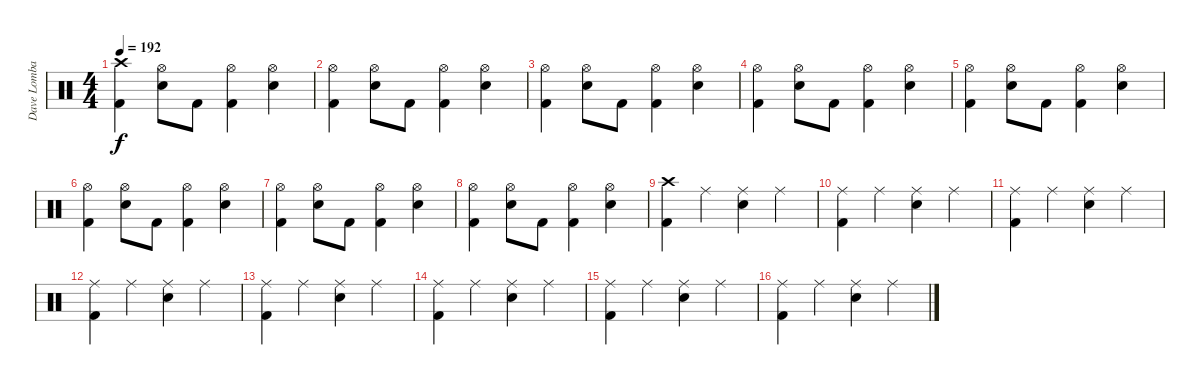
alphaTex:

\track ("Dave Lombardo" "Dave Lomba") {instrument percussion}
\staff {score}
\articulation defaults
\ts (4 4)
\tempo 192
\clef neutral
\ks c
("Crash high (hit)" "Kick (hit) 2").4{dy f} ("Hi-Hat (open)" "Electric Snare (hit)").8 "Kick (hit) 2".8 ("Hi-Hat (open)" "Kick (hit) 2").4 ("Hi-Hat (open)" "Electric Snare (hit)").4 |
("Hi-Hat (open)" "Kick (hit) 2").4 ("Hi-Hat (open)" "Electric Snare (hit)").8 "Kick (hit) 2".8 ("Hi-Hat (open)" "Kick (hit) 2").4 ("Hi-Hat (open)" "Electric Snare (hit)").4 |
("Hi-Hat (open)" "Kick (hit) 2").4 ("Hi-Hat (open)" "Electric Snare (hit)").8 "Kick (hit) 2".8 ("Hi-Hat (open)" "Kick (hit) 2").4 ("Hi-Hat (open)" "Electric Snare (hit)").4 |
("Hi-Hat (open)" "Kick (hit) 2").4 ("Hi-Hat (open)" "Electric Snare (hit)").8 "Kick (hit) 2".8 ("Hi-Hat (open)" "Kick (hit) 2").4 ("Hi-Hat (open)" "Electric Snare (hit)").4 |
("Hi-Hat (open)" "Kick (hit) 2").4 ("Hi-Hat (open)" "Electric Snare (hit)").8 "Kick (hit) 2".8 ("Hi-Hat (open)" "Kick (hit) 2").4 ("Hi-Hat (open)" "Electric Snare (hit)").4 |
("Hi-Hat (open)" "Kick (hit) 2").4 ("Hi-Hat (open)" "Electric Snare (hit)").8 "Kick (hit) 2".8 ("Hi-Hat (open)" "Kick (hit) 2").4 ("Hi-Hat (open)" "Electric Snare (hit)").4 |
("Hi-Hat (open)" "Kick (hit) 2").4 ("Hi-Hat (open)" "Electric Snare (hit)").8 "Kick (hit) 2".8 ("Hi-Hat (open)" "Kick (hit) 2").4 ("Hi-Hat (open)" "Electric Snare (hit)").4 |
("Hi-Hat (open)" "Kick (hit) 2").4 ("Hi-Hat (open)" "Electric Snare (hit)").8 "Kick (hit) 2".8 ("Hi-Hat (open)" "Kick (hit) 2").4 ("Hi-Hat (open)" "Electric Snare (hit)").4 |
("Crash high (hit)" "Kick (hit) 2").4 "Ride (middle)".4 ("Ride (middle)" "Electric Snare (hit)").4 "Ride (middle)".4 |
("Ride (middle)" "Kick (hit) 2").4 "Ride (middle)".4 ("Ride (middle)" "Electric Snare (hit)").4 "Ride (middle)".4 |
("Ride (middle)" "Kick (hit) 2").4 "Ride (middle)".4 ("Ride (middle)" "Electric Snare (hit)").4 "Ride (middle)".4 |
("Ride (middle)" "Kick (hit) 2").4 "Ride (middle)".4 ("Ride (middle)" "Electric Snare (hit)").4 "Ride (middle)".4 |
("Ride (middle)" "Kick (hit) 2").4 "Ride (middle)".4 ("Ride (middle)" "Electric Snare (hit)").4 "Ride (middle)".4 |
("Ride (middle)" "Kick (hit) 2").4 "Ride (middle)".4 ("Ride (middle)" "Electric Snare (hit)").4 "Ride (middle)".4 |
("Ride (middle)" "Kick (hit) 2").4 "Ride (middle)".4 ("Ride (middle)" "Electric Snare (hit)").4 "Ride (middle)".4 |
("Ride (middle)" "Kick (hit) 2").4 "Ride (middle)".4 ("Ride (middle)" "Electric Snare (hit)").4 "Ride (middle)".4
